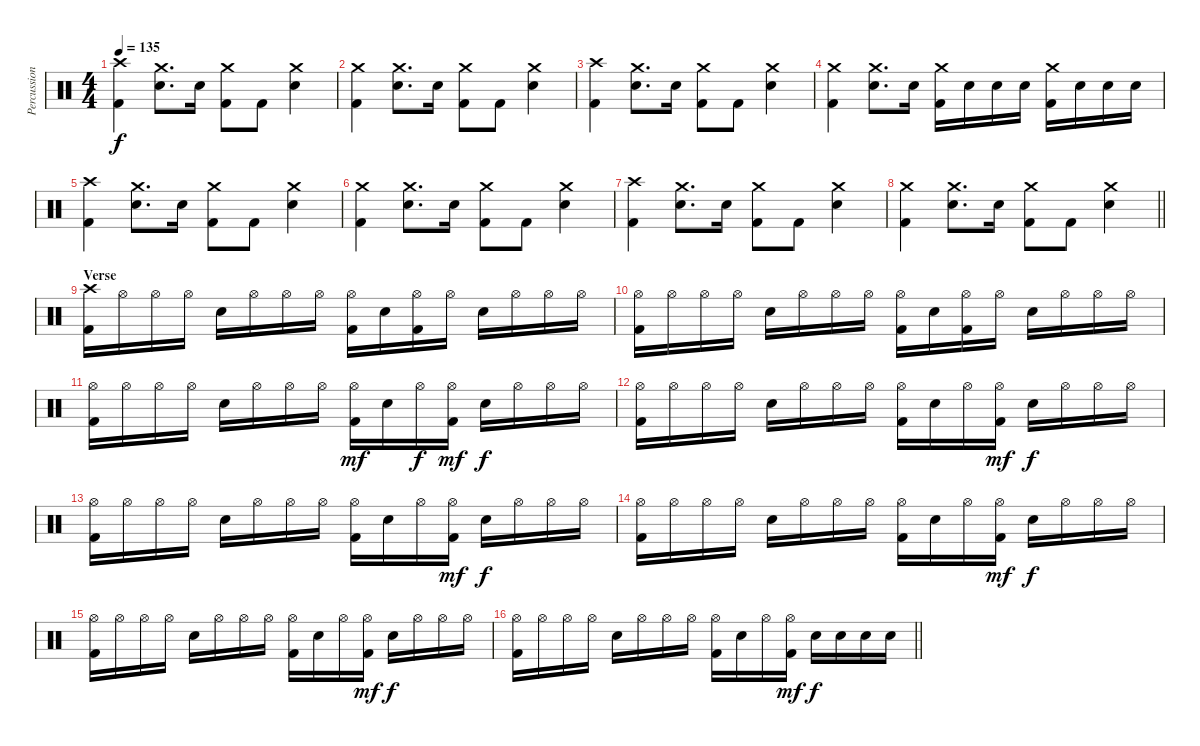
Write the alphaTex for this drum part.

\track ("Percussion" "Percussion") {instrument percussion}
\staff {score}
\articulation defaults
\ts (4 4)
\tempo 135
\clef neutral
\ks c
("Crash high (hit)" "Kick (hit) 2").4{dy f} ("Crash medium (hit)" "Electric Snare (hit)").8{d} "Electric Snare (hit)".16 ("Crash medium (hit)" "Kick (hit) 2").8 "Kick (hit) 2".8 ("Crash medium (hit)" "Electric Snare (hit)").4 |
("Crash medium (hit)" "Kick (hit) 2").4 ("Crash medium (hit)" "Electric Snare (hit)").8{d} "Electric Snare (hit)".16 ("Crash medium (hit)" "Kick (hit) 2").8 "Kick (hit) 2".8 ("Crash medium (hit)" "Electric Snare (hit)").4 |
("Crash high (hit)" "Kick (hit) 2").4 ("Crash medium (hit)" "Electric Snare (hit)").8{d} "Electric Snare (hit)".16 ("Crash medium (hit)" "Kick (hit) 2").8 "Kick (hit) 2".8 ("Crash medium (hit)" "Electric Snare (hit)").4 |
("Crash medium (hit)" "Kick (hit) 2").4 ("Crash medium (hit)" "Electric Snare (hit)").8{d} "Electric Snare (hit)".16 ("Crash medium (hit)" "Kick (hit) 2").16 "Electric Snare (hit)".16 "Electric Snare (hit)".16 "Electric Snare (hit)".16 ("Crash medium (hit)" "Kick (hit) 2").16 "Electric Snare (hit)".16 "Electric Snare (hit)".16 "Electric Snare (hit)".16 |
("Crash high (hit)" "Kick (hit) 2").4 ("Crash medium (hit)" "Electric Snare (hit)").8{d} "Electric Snare (hit)".16 ("Crash medium (hit)" "Kick (hit) 2").8 "Kick (hit) 2".8 ("Crash medium (hit)" "Electric Snare (hit)").4 |
("Crash medium (hit)" "Kick (hit) 2").4 ("Crash medium (hit)" "Electric Snare (hit)").8{d} "Electric Snare (hit)".16 ("Crash medium (hit)" "Kick (hit) 2").8 "Kick (hit) 2".8 ("Crash medium (hit)" "Electric Snare (hit)").4 |
("Crash high (hit)" "Kick (hit) 2").4 ("Crash medium (hit)" "Electric Snare (hit)").8{d} "Electric Snare (hit)".16 ("Crash medium (hit)" "Kick (hit) 2").8 "Kick (hit) 2".8 ("Crash medium (hit)" "Electric Snare (hit)").4 |
\barLineRight lightlight
("Crash medium (hit)" "Kick (hit) 2").4 ("Crash medium (hit)" "Electric Snare (hit)").8{d} "Electric Snare (hit)".16 ("Crash medium (hit)" "Kick (hit) 2").8 "Kick (hit) 2".8 ("Crash medium (hit)" "Electric Snare (hit)").4 |
\section ("" "Verse")
("Crash high (hit)" "Kick (hit) 2").16 "Hi-Hat (open)".16 "Hi-Hat (open)".16 "Hi-Hat (open)".16 "Electric Snare (hit)".16 "Hi-Hat (open)".16 "Hi-Hat (open)".16 "Hi-Hat (open)".16 ("Hi-Hat (open)" "Kick (hit) 2").16 "Electric Snare (hit)".16 ("Hi-Hat (open)" "Kick (hit) 2").16 "Hi-Hat (open)".16 "Electric Snare (hit)".16 "Hi-Hat (open)".16 "Hi-Hat (open)".16 "Hi-Hat (open)".16 |
("Hi-Hat (open)" "Kick (hit) 2").16 "Hi-Hat (open)".16 "Hi-Hat (open)".16 "Hi-Hat (open)".16 "Electric Snare (hit)".16 "Hi-Hat (open)".16 "Hi-Hat (open)".16 "Hi-Hat (open)".16 ("Hi-Hat (open)" "Kick (hit) 2").16 "Electric Snare (hit)".16 ("Hi-Hat (open)" "Kick (hit) 2").16 "Hi-Hat (open)".16 "Electric Snare (hit)".16 "Hi-Hat (open)".16 "Hi-Hat (open)".16 "Hi-Hat (open)".16 |
("Hi-Hat (open)" "Kick (hit) 2").16 "Hi-Hat (open)".16 "Hi-Hat (open)".16 "Hi-Hat (open)".16 "Electric Snare (hit)".16 "Hi-Hat (open)".16 "Hi-Hat (open)".16 "Hi-Hat (open)".16 ("Hi-Hat (open)" "Kick (hit) 2").16{dy mf} "Electric Snare (hit)".16 "Hi-Hat (open)".16{dy f} ("Hi-Hat (open)" "Kick (hit) 2").16{dy mf} "Electric Snare (hit)".16{dy f} "Hi-Hat (open)".16 "Hi-Hat (open)".16 "Hi-Hat (open)".16 |
("Hi-Hat (open)" "Kick (hit) 2").16 "Hi-Hat (open)".16 "Hi-Hat (open)".16 "Hi-Hat (open)".16 "Electric Snare (hit)".16 "Hi-Hat (open)".16 "Hi-Hat (open)".16 "Hi-Hat (open)".16 ("Hi-Hat (open)" "Kick (hit) 2").16 "Electric Snare (hit)".16 "Hi-Hat (open)".16 ("Hi-Hat (open)" "Kick (hit) 2").16{dy mf} "Electric Snare (hit)".16{dy f} "Hi-Hat (open)".16 "Hi-Hat (open)".16 "Hi-Hat (open)".16 |
("Hi-Hat (open)" "Kick (hit) 2").16 "Hi-Hat (open)".16 "Hi-Hat (open)".16 "Hi-Hat (open)".16 "Electric Snare (hit)".16 "Hi-Hat (open)".16 "Hi-Hat (open)".16 "Hi-Hat (open)".16 ("Hi-Hat (open)" "Kick (hit) 2").16 "Electric Snare (hit)".16 "Hi-Hat (open)".16 ("Hi-Hat (open)" "Kick (hit) 2").16{dy mf} "Electric Snare (hit)".16{dy f} "Hi-Hat (open)".16 "Hi-Hat (open)".16 "Hi-Hat (open)".16 |
("Hi-Hat (open)" "Kick (hit) 2").16 "Hi-Hat (open)".16 "Hi-Hat (open)".16 "Hi-Hat (open)".16 "Electric Snare (hit)".16 "Hi-Hat (open)".16 "Hi-Hat (open)".16 "Hi-Hat (open)".16 ("Hi-Hat (open)" "Kick (hit) 2").16 "Electric Snare (hit)".16 "Hi-Hat (open)".16 ("Hi-Hat (open)" "Kick (hit) 2").16{dy mf} "Electric Snare (hit)".16{dy f} "Hi-Hat (open)".16 "Hi-Hat (open)".16 "Hi-Hat (open)".16 |
("Hi-Hat (open)" "Kick (hit) 2").16 "Hi-Hat (open)".16 "Hi-Hat (open)".16 "Hi-Hat (open)".16 "Electric Snare (hit)".16 "Hi-Hat (open)".16 "Hi-Hat (open)".16 "Hi-Hat (open)".16 ("Hi-Hat (open)" "Kick (hit) 2").16 "Electric Snare (hit)".16 "Hi-Hat (open)".16 ("Hi-Hat (open)" "Kick (hit) 2").16{dy mf} "Electric Snare (hit)".16{dy f} "Hi-Hat (open)".16 "Hi-Hat (open)".16 "Hi-Hat (open)".16 |
\barLineRight lightlight
("Hi-Hat (open)" "Kick (hit) 2").16 "Hi-Hat (open)".16 "Hi-Hat (open)".16 "Hi-Hat (open)".16 "Electric Snare (hit)".16 "Hi-Hat (open)".16 "Hi-Hat (open)".16 "Hi-Hat (open)".16 ("Hi-Hat (open)" "Kick (hit) 2").16 "Electric Snare (hit)".16 "Hi-Hat (open)".16 ("Hi-Hat (open)" "Kick (hit) 2").16{dy mf} "Electric Snare (hit)".16{dy f} "Electric Snare (hit)".16 "Electric Snare (hit)".16 "Electric Snare (hit)".16
